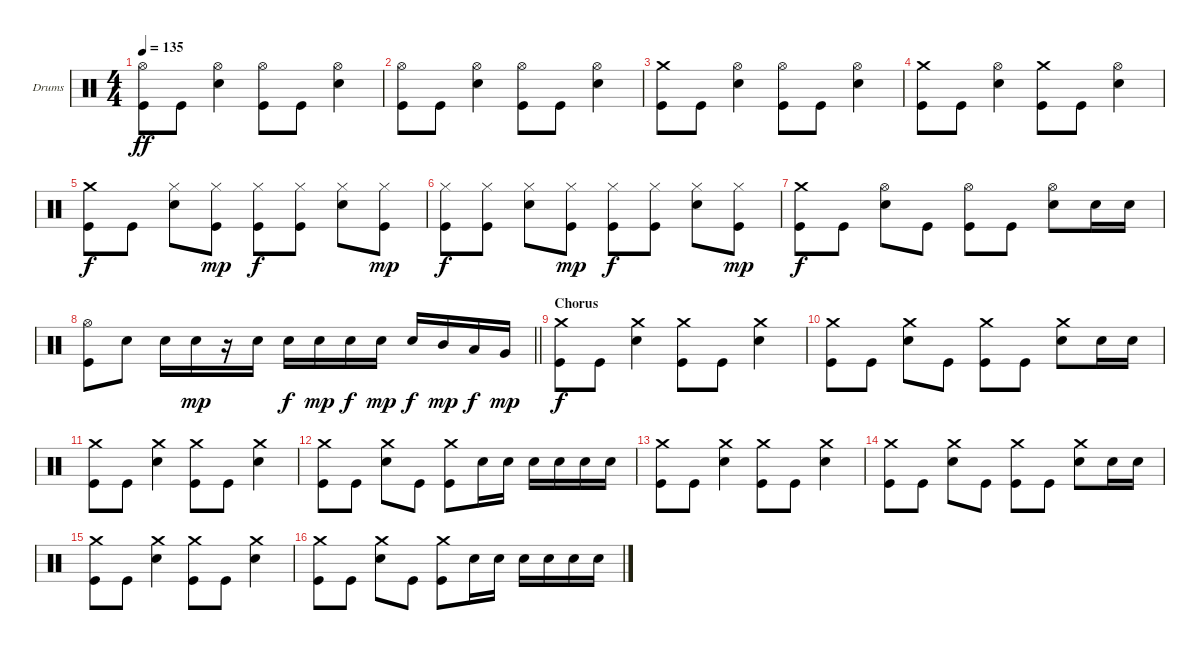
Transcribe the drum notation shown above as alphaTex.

\bracketExtendMode groupsimilarinstruments
\firstSystemTrackNameOrientation horizontal
\otherSystemsTrackNameOrientation horizontal
\track ("Drumkit" "Drums") {instrument percussion}
\staff {score}
\articulation defaults
\ts (4 4)
\tempo 135
\clef neutral
\ks c
("Hi-Hat (open)" "Kick (hit)").8{dy ff} "Kick (hit)".8 ("Snare (hit) 2" "Hi-Hat (open)").4 ("Hi-Hat (open)" "Kick (hit)").8 "Kick (hit)".8 ("Snare (hit) 2" "Hi-Hat (open)").4 |
("Hi-Hat (open)" "Kick (hit)").8 "Kick (hit)".8 ("Snare (hit) 2" "Hi-Hat (open)").4 ("Hi-Hat (open)" "Kick (hit)").8 "Kick (hit)".8 ("Snare (hit) 2" "Hi-Hat (open)").4 |
("Kick (hit)" "Crash medium (hit)").8 "Kick (hit)".8 ("Snare (hit) 2" "Hi-Hat (open)").4 ("Hi-Hat (open)" "Kick (hit)").8 "Kick (hit)".8 ("Snare (hit) 2" "Hi-Hat (open)").4 |
("Kick (hit)" "Crash medium (hit)").8 "Kick (hit)".8 ("Snare (hit) 2" "Hi-Hat (open)").4 ("Kick (hit)" "Crash medium (hit)").8 "Kick (hit)".8 ("Snare (hit) 2" "Hi-Hat (open)").4 |
("Crash medium (hit)" "Kick (hit)").8{dy f} "Kick (hit)".8 ("Snare (hit) 2" "Hi-Hat (closed)").8 ("Hi-Hat (closed)" "Kick (hit)").8{dy mp} ("Kick (hit)" "Hi-Hat (closed)").8{dy f} ("Kick (hit)" "Hi-Hat (closed)").8 ("Snare (hit) 2" "Hi-Hat (closed)").8 ("Hi-Hat (closed)" "Kick (hit)").8{dy mp} |
("Kick (hit)" "Hi-Hat (closed)").8{dy f} ("Kick (hit)" "Hi-Hat (closed)").8 ("Snare (hit) 2" "Hi-Hat (closed)").8 ("Hi-Hat (closed)" "Kick (hit)").8{dy mp} ("Kick (hit)" "Hi-Hat (closed)").8{dy f} ("Kick (hit)" "Hi-Hat (closed)").8 ("Snare (hit) 2" "Hi-Hat (closed)").8 ("Hi-Hat (closed)" "Kick (hit)").8{dy mp} |
("Crash medium (hit)" "Kick (hit)").8{dy f} "Kick (hit)".8 ("Hi-Hat (open)" "Snare (hit) 2").8 "Kick (hit)".8 ("Kick (hit)" "Hi-Hat (open)").8 "Kick (hit)".8 ("Hi-Hat (open)" "Snare (hit) 2").8 "Snare (hit) 2".16 "Snare (hit) 2".16 |
\barLineRight lightlight
("Kick (hit)" "Hi-Hat (open)").8 "Snare (hit) 2".8 "Snare (hit) 2".16 "Snare (hit) 2".16{dy mp} r.16 "Snare (hit) 2".16 "Snare (hit) 2".16{dy f} "Snare (hit) 2".16{dy mp} "Snare (hit) 2".16{dy f} "Snare (hit) 2".16{dy mp} "Snare (hit) 2".16{dy f} "Mid Tom (hit)".16{dy mp} "Low Tom (hit)".16{dy f} "Very Low Tom (hit)".16{dy mp} |
\section ("" "Chorus")
("Crash medium (hit)" "Kick (hit)").8{dy f} "Kick (hit)".8 ("Snare (hit) 2" "Crash medium (hit)").4 ("Crash medium (hit)" "Kick (hit)").8 "Kick (hit)".8 ("Snare (hit) 2" "Crash medium (hit)").4 |
("Crash medium (hit)" "Kick (hit)").8 "Kick (hit)".8 ("Snare (hit) 2" "Crash medium (hit)").8 "Kick (hit)".8 ("Crash medium (hit)" "Kick (hit)").8 "Kick (hit)".8 ("Snare (hit) 2" "Crash medium (hit)").8 "Snare (hit) 2".16 "Snare (hit) 2".16 |
("Crash medium (hit)" "Kick (hit)").8 "Kick (hit)".8 ("Snare (hit) 2" "Crash medium (hit)").4 ("Crash medium (hit)" "Kick (hit)").8 "Kick (hit)".8 ("Snare (hit) 2" "Crash medium (hit)").4 |
("Crash medium (hit)" "Kick (hit)").8 "Kick (hit)".8 ("Snare (hit) 2" "Crash medium (hit)").8 "Kick (hit)".8 ("Crash medium (hit)" "Kick (hit)").8 "Snare (hit) 2".16 "Snare (hit) 2".16 "Snare (hit) 2".16 "Snare (hit) 2".16 "Snare (hit) 2".16 "Snare (hit) 2".16 |
("Crash medium (hit)" "Kick (hit)").8 "Kick (hit)".8 ("Snare (hit) 2" "Crash medium (hit)").4 ("Crash medium (hit)" "Kick (hit)").8 "Kick (hit)".8 ("Snare (hit) 2" "Crash medium (hit)").4 |
("Crash medium (hit)" "Kick (hit)").8 "Kick (hit)".8 ("Snare (hit) 2" "Crash medium (hit)").8 "Kick (hit)".8 ("Crash medium (hit)" "Kick (hit)").8 "Kick (hit)".8 ("Snare (hit) 2" "Crash medium (hit)").8 "Snare (hit) 2".16 "Snare (hit) 2".16 |
("Crash medium (hit)" "Kick (hit)").8 "Kick (hit)".8 ("Snare (hit) 2" "Crash medium (hit)").4 ("Crash medium (hit)" "Kick (hit)").8 "Kick (hit)".8 ("Snare (hit) 2" "Crash medium (hit)").4 |
("Crash medium (hit)" "Kick (hit)").8 "Kick (hit)".8 ("Snare (hit) 2" "Crash medium (hit)").8 "Kick (hit)".8 ("Crash medium (hit)" "Kick (hit)").8 "Snare (hit) 2".16 "Snare (hit) 2".16 "Snare (hit) 2".16 "Snare (hit) 2".16 "Snare (hit) 2".16 "Snare (hit) 2".16
